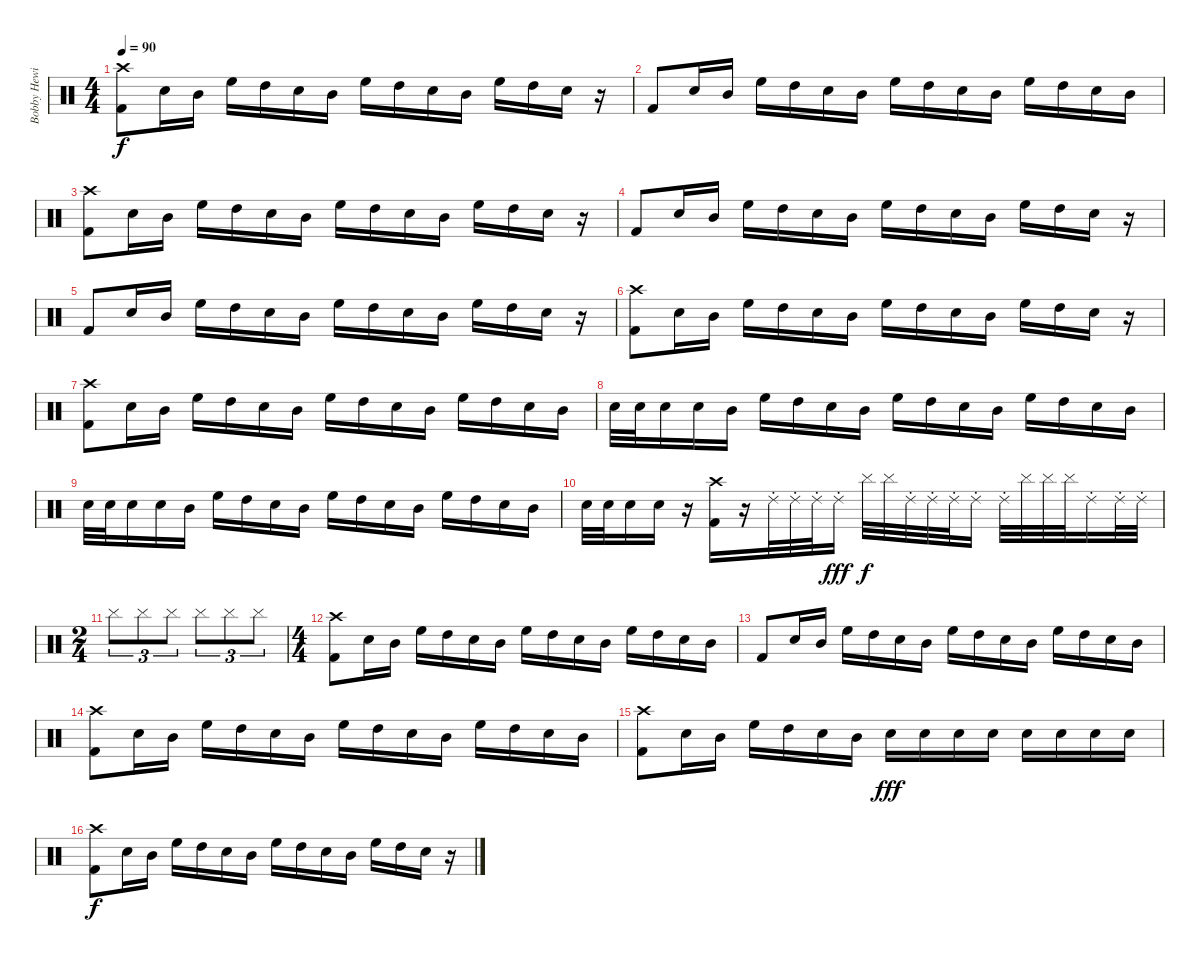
\track ("Bobby Hewitt (Drums)" "Bobby Hewi") {instrument percussion}
\staff {score}
\articulation defaults
\ts (4 4)
\tempo 90
\clef neutral
\ks c
("Crash high (hit)" "Kick (hit) 2").8{dy f} "Electric Snare (hit)".16 "Mid Tom (hit)".16 "High Floor Tom (hit)".16 "High Tom (hit)".16 "Electric Snare (hit)".16 "Mid Tom (hit)".16 "High Floor Tom (hit)".16 "High Tom (hit)".16 "Electric Snare (hit)".16 "Mid Tom (hit)".16 "High Floor Tom (hit)".16 "High Tom (hit)".16 "Electric Snare (hit)".16 r.16 |
"Kick (hit) 2".8 "Electric Snare (hit)".16 "Mid Tom (hit)".16 "High Floor Tom (hit)".16 "High Tom (hit)".16 "Electric Snare (hit)".16 "Mid Tom (hit)".16 "High Floor Tom (hit)".16 "High Tom (hit)".16 "Electric Snare (hit)".16 "Mid Tom (hit)".16 "High Floor Tom (hit)".16 "High Tom (hit)".16 "Electric Snare (hit)".16 "Mid Tom (hit)".16 |
("Crash high (hit)" "Kick (hit) 2").8 "Electric Snare (hit)".16 "Mid Tom (hit)".16 "High Floor Tom (hit)".16 "High Tom (hit)".16 "Electric Snare (hit)".16 "Mid Tom (hit)".16 "High Floor Tom (hit)".16 "High Tom (hit)".16 "Electric Snare (hit)".16 "Mid Tom (hit)".16 "High Floor Tom (hit)".16 "High Tom (hit)".16 "Electric Snare (hit)".16 r.16 |
"Kick (hit) 2".8 "Electric Snare (hit)".16 "Mid Tom (hit)".16 "High Floor Tom (hit)".16 "High Tom (hit)".16 "Electric Snare (hit)".16 "Mid Tom (hit)".16 "High Floor Tom (hit)".16 "High Tom (hit)".16 "Electric Snare (hit)".16 "Mid Tom (hit)".16 "High Floor Tom (hit)".16 "High Tom (hit)".16 "Electric Snare (hit)".16 r.16 |
"Kick (hit) 2".8 "Electric Snare (hit)".16 "Mid Tom (hit)".16 "High Floor Tom (hit)".16 "High Tom (hit)".16 "Electric Snare (hit)".16 "Mid Tom (hit)".16 "High Floor Tom (hit)".16 "High Tom (hit)".16 "Electric Snare (hit)".16 "Mid Tom (hit)".16 "High Floor Tom (hit)".16 "High Tom (hit)".16 "Electric Snare (hit)".16 r.16 |
("Crash high (hit)" "Kick (hit) 2").8 "Electric Snare (hit)".16 "Mid Tom (hit)".16 "High Floor Tom (hit)".16 "High Tom (hit)".16 "Electric Snare (hit)".16 "Mid Tom (hit)".16 "High Floor Tom (hit)".16 "High Tom (hit)".16 "Electric Snare (hit)".16 "Mid Tom (hit)".16 "High Floor Tom (hit)".16 "High Tom (hit)".16 "Electric Snare (hit)".16 r.16 |
("Crash high (hit)" "Kick (hit) 2").8 "Electric Snare (hit)".16 "Mid Tom (hit)".16 "High Floor Tom (hit)".16 "High Tom (hit)".16 "Electric Snare (hit)".16 "Mid Tom (hit)".16 "High Floor Tom (hit)".16 "High Tom (hit)".16 "Electric Snare (hit)".16 "Mid Tom (hit)".16 "High Floor Tom (hit)".16 "High Tom (hit)".16 "Electric Snare (hit)".16 "Mid Tom (hit)".16 |
"Electric Snare (hit)".32 "Electric Snare (hit)".32 "Electric Snare (hit)".16 "Electric Snare (hit)".16 "Mid Tom (hit)".16 "High Floor Tom (hit)".16 "High Tom (hit)".16 "Electric Snare (hit)".16 "Mid Tom (hit)".16 "High Floor Tom (hit)".16 "High Tom (hit)".16 "Electric Snare (hit)".16 "Mid Tom (hit)".16 "High Floor Tom (hit)".16 "High Tom (hit)".16 "Electric Snare (hit)".16 "Mid Tom (hit)".16 |
"Electric Snare (hit)".32 "Electric Snare (hit)".32 "Electric Snare (hit)".16 "Electric Snare (hit)".16 "Mid Tom (hit)".16 "High Floor Tom (hit)".16 "High Tom (hit)".16 "Electric Snare (hit)".16 "Mid Tom (hit)".16 "High Floor Tom (hit)".16 "High Tom (hit)".16 "Electric Snare (hit)".16 "Mid Tom (hit)".16 "High Floor Tom (hit)".16 "High Tom (hit)".16 "Electric Snare (hit)".16 "Mid Tom (hit)".16 |
"Electric Snare (hit)".32 "Electric Snare (hit)".32 "Electric Snare (hit)".16 "Electric Snare (hit)".16 r.16 ("Crash high (hit)" "Kick (hit) 2").16 r.16 "Ride (choke) 2".32 "Ride (choke) 2".32 "Ride (choke) 2".32 "Ride (choke) 2".16{dy fff} "Cymbal (hit)".32{dy f} "Cymbal (hit)".32 "Ride (choke) 2".32 "Ride (choke) 2".32 "Ride (choke) 2".32 "Ride (choke) 2".16 "Ride (choke) 2".32 "Cymbal (hit)".32 "Cymbal (hit)".32 "Cymbal (hit)".32 "Ride (choke) 2".16 "Ride (choke) 2".32 "Ride (choke) 2".32 |
\ts (2 4)
"Cymbal (hit)".8{tu (3 2)} "Cymbal (hit)".8{tu (3 2)} "Cymbal (hit)".8{tu (3 2)} "Cymbal (hit)".8{tu (3 2)} "Cymbal (hit)".8{tu (3 2)} "Cymbal (hit)".8{tu (3 2)} |
\ts (4 4)
("Crash high (hit)" "Kick (hit) 2").8 "Electric Snare (hit)".16 "Mid Tom (hit)".16 "High Floor Tom (hit)".16 "High Tom (hit)".16 "Electric Snare (hit)".16 "Mid Tom (hit)".16 "High Floor Tom (hit)".16 "High Tom (hit)".16 "Electric Snare (hit)".16 "Mid Tom (hit)".16 "High Floor Tom (hit)".16 "High Tom (hit)".16 "Electric Snare (hit)".16 "Mid Tom (hit)".16 |
"Kick (hit) 2".8 "Electric Snare (hit)".16 "Mid Tom (hit)".16 "High Floor Tom (hit)".16 "High Tom (hit)".16 "Electric Snare (hit)".16 "Mid Tom (hit)".16 "High Floor Tom (hit)".16 "High Tom (hit)".16 "Electric Snare (hit)".16 "Mid Tom (hit)".16 "High Floor Tom (hit)".16 "High Tom (hit)".16 "Electric Snare (hit)".16 "Mid Tom (hit)".16 |
("Crash high (hit)" "Kick (hit) 2").8 "Electric Snare (hit)".16 "Mid Tom (hit)".16 "High Floor Tom (hit)".16 "High Tom (hit)".16 "Electric Snare (hit)".16 "Mid Tom (hit)".16 "High Floor Tom (hit)".16 "High Tom (hit)".16 "Electric Snare (hit)".16 "Mid Tom (hit)".16 "High Floor Tom (hit)".16 "High Tom (hit)".16 "Electric Snare (hit)".16 "Mid Tom (hit)".16 |
("Crash high (hit)" "Kick (hit) 2").8 "Electric Snare (hit)".16 "Mid Tom (hit)".16 "High Floor Tom (hit)".16 "High Tom (hit)".16 "Electric Snare (hit)".16 "Mid Tom (hit)".16 "Electric Snare (hit)".16{dy fff} "Electric Snare (hit)".16 "Electric Snare (hit)".16 "Electric Snare (hit)".16 "Electric Snare (hit)".16 "Electric Snare (hit)".16 "Electric Snare (hit)".16 "Electric Snare (hit)".16 |
("Crash high (hit)" "Kick (hit) 2").8{dy f} "Electric Snare (hit)".16 "Mid Tom (hit)".16 "High Floor Tom (hit)".16 "High Tom (hit)".16 "Electric Snare (hit)".16 "Mid Tom (hit)".16 "High Floor Tom (hit)".16 "High Tom (hit)".16 "Electric Snare (hit)".16 "Mid Tom (hit)".16 "High Floor Tom (hit)".16 "High Tom (hit)".16 "Electric Snare (hit)".16 r.16
